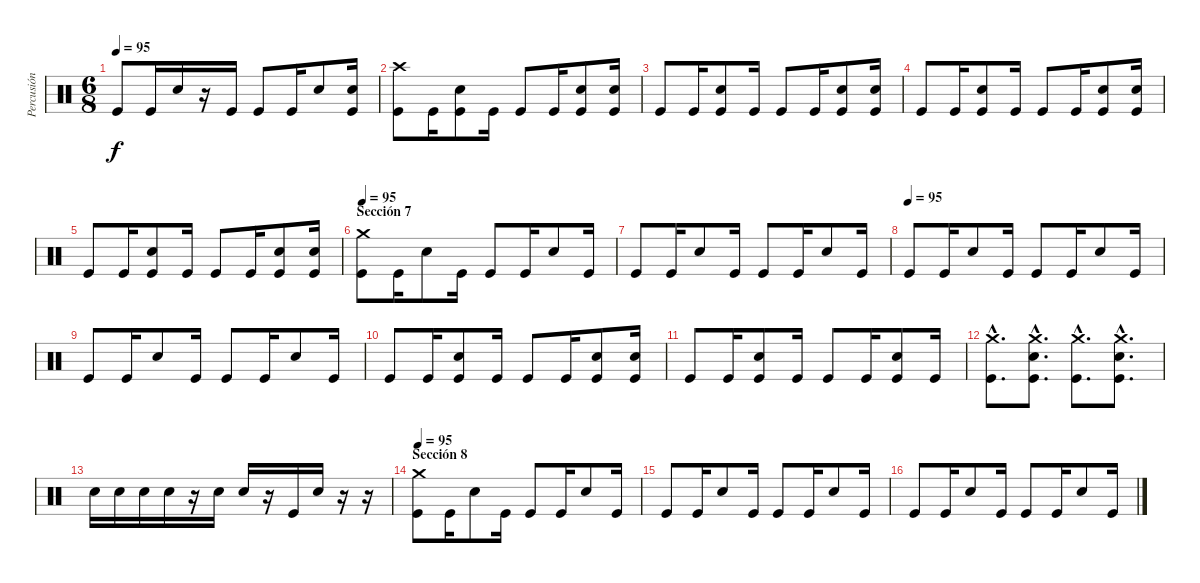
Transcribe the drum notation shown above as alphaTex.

\track ("Percusión" "Percusión") {instrument percussion}
\staff {score}
\articulation defaults
\ts (6 8)
\tempo 95
\clef neutral
\ks c "Kick (hit)".8{dy f} "Kick (hit)".16 "Electric Snare (hit)".16
r.16 "Kick (hit)".16 "Kick (hit)".8 "Kick (hit)".16 "Electric Snare (hit)".8 ("Electric Snare (hit)" "Kick (hit)").16 |
("Crash high (hit)" "Kick (hit)").8 "Kick (hit)".16 ("Electric Snare (hit)" "Kick (hit)").8 "Kick (hit)".16 "Kick (hit)".8 "Kick (hit)".16 ("Electric Snare (hit)" "Kick (hit)").8 ("Electric Snare (hit)" "Kick (hit)").16 |
"Kick (hit)".8 "Kick (hit)".16 ("Electric Snare (hit)" "Kick (hit)").8 "Kick (hit)".16 "Kick (hit)".8 "Kick (hit)".16 ("Electric Snare (hit)" "Kick (hit)").8 ("Electric Snare (hit)" "Kick (hit)").16 |
"Kick (hit)".8 "Kick (hit)".16 ("Electric Snare (hit)" "Kick (hit)").8 "Kick (hit)".16 "Kick (hit)".8 "Kick (hit)".16 ("Electric Snare (hit)" "Kick (hit)").8 ("Electric Snare (hit)" "Kick (hit)").16 |
"Kick (hit)".8 "Kick (hit)".16 ("Electric Snare (hit)" "Kick (hit)").8 "Kick (hit)".16 "Kick (hit)".8 "Kick (hit)".16 ("Electric Snare (hit)" "Kick (hit)").8 ("Electric Snare (hit)" "Kick (hit)").16 |
\section ("" "Sección 7")
\tempo 95
("Crash medium (hit)" "Kick (hit)").8 "Kick (hit)".16 "Electric Snare (hit)".8 "Kick (hit)".16 "Kick (hit)".8 "Kick (hit)".16 "Electric Snare (hit)".8 "Kick (hit)".16 |
"Kick (hit)".8 "Kick (hit)".16 "Electric Snare (hit)".8 "Kick (hit)".16 "Kick (hit)".8 "Kick (hit)".16 "Electric Snare (hit)".8 "Kick (hit)".16 |
\tempo (95)
"Kick (hit)".8 "Kick (hit)".16 "Electric Snare (hit)".8 "Kick (hit)".16 "Kick (hit)".8 "Kick (hit)".16 "Electric Snare (hit)".8 "Kick (hit)".16 |
"Kick (hit)".8 "Kick (hit)".16 "Electric Snare (hit)".8 "Kick (hit)".16 "Kick (hit)".8 "Kick (hit)".16 "Electric Snare (hit)".8 "Kick (hit)".16 |
"Kick (hit)".8 "Kick (hit)".16 ("Electric Snare (hit)" "Kick (hit)").8 "Kick (hit)".16 "Kick (hit)".8 "Kick (hit)".16 ("Electric Snare (hit)" "Kick (hit)").8 ("Electric Snare (hit)" "Kick (hit)").16 |
"Kick (hit)".8 "Kick (hit)".16 ("Electric Snare (hit)" "Kick (hit)").8 "Kick (hit)".16 "Kick (hit)".8 "Kick (hit)".16 ("Electric Snare (hit)" "Kick (hit)").8 "Kick (hit)".16 |
("Crash medium (hit)"{hac} "Kick (hit)"{hac}).8{d} ("Crash medium (hit)"{hac} "Electric Snare (hit)"{hac} "Kick (hit)"{hac}).8{d} ("Crash medium (hit)"{hac} "Kick (hit)"{hac}).8{d} ("Crash medium (hit)"{hac} "Electric Snare (hit)"{hac} "Kick (hit)"{hac}).8{d} |
"Electric Snare (hit)".16 "Electric Snare (hit)".16 "Electric Snare (hit)".16 "Electric Snare (hit)".16 r.16 "Electric Snare (hit)".16 "Electric Snare (hit)".16 r.16 "Kick (hit)".16 "Electric Snare (hit)".16 r.16 r.16 |
\section ("" "Sección 8")
\tempo 95
("Crash medium (hit)" "Kick (hit)").8 "Kick (hit)".16 "Electric Snare (hit)".8 "Kick (hit)".16 "Kick (hit)".8 "Kick (hit)".16 "Electric Snare (hit)".8 "Kick (hit)".16 |
"Kick (hit)".8 "Kick (hit)".16 "Electric Snare (hit)".8 "Kick (hit)".16 "Kick (hit)".8 "Kick (hit)".16 "Electric Snare (hit)".8 "Kick (hit)".16 |
"Kick (hit)".8 "Kick (hit)".16 "Electric Snare (hit)".8 "Kick (hit)".16 "Kick (hit)".8 "Kick (hit)".16 "Electric Snare (hit)".8 "Kick (hit)".16
